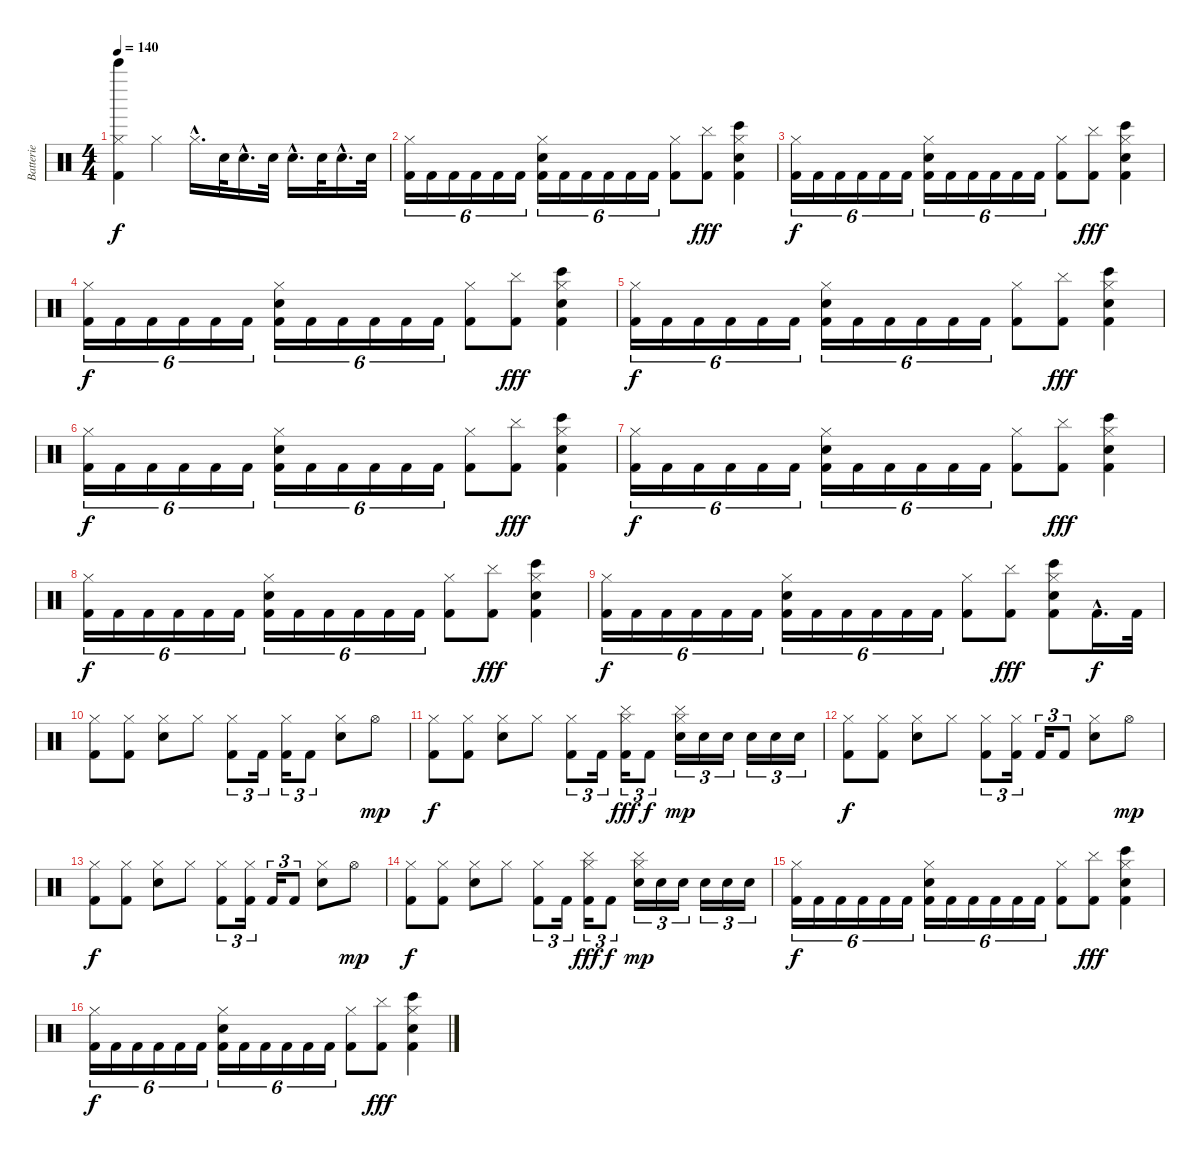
\track ("Batterie" "Batterie") {instrument percussion}
\staff {score}
\articulation defaults
\ts (4 4)
\tempo 140
\clef neutral
\ks c
("Hi-Hat (closed)" "Bell Tree (hit)" "Kick (hit) 2").4{dy f} "Hi-Hat (closed)".4 "Hi-Hat (closed)"{hac}.16{d} "Electric Snare (hit)".32 "Electric Snare (hit)"{hac}.16{d} "Electric Snare (hit)".32 "Electric Snare (hit)"{hac}.16{d} "Electric Snare (hit)".32 "Electric Snare (hit)"{hac}.16{d} "Electric Snare (hit)".32 |
("Hi-Hat (closed)" "Kick (hit) 2").16{tu (6 4)} "Kick (hit) 2".16{tu (6 4)} "Kick (hit) 2".16{tu (6 4)} "Kick (hit) 2".16{tu (6 4)} "Kick (hit) 2".16{tu (6 4)} "Kick (hit) 2".16{tu (6 4)} ("Hi-Hat (closed)" "Electric Snare (hit)" "Kick (hit) 2").16{tu (6 4)} "Kick (hit) 2".16{tu (6 4)} "Kick (hit) 2".16{tu (6 4)} "Kick (hit) 2".16{tu (6 4)} "Kick (hit) 2".16{tu (6 4)} "Kick (hit) 2".16{tu (6 4)} ("Hi-Hat (closed)" "Kick (hit) 2").8 ("Cymbal (hit)" "Kick (hit) 2").8{dy fff} ("Hi-Hat (closed)" "Electric Snare (hit)" "Bongo High (hit)" "Kick (hit) 2").4 |
("Hi-Hat (closed)" "Kick (hit) 2").16{tu (6 4) dy f} "Kick (hit) 2".16{tu (6 4)} "Kick (hit) 2".16{tu (6 4)} "Kick (hit) 2".16{tu (6 4)} "Kick (hit) 2".16{tu (6 4)} "Kick (hit) 2".16{tu (6 4)} ("Hi-Hat (closed)" "Electric Snare (hit)" "Kick (hit) 2").16{tu (6 4)} "Kick (hit) 2".16{tu (6 4)} "Kick (hit) 2".16{tu (6 4)} "Kick (hit) 2".16{tu (6 4)} "Kick (hit) 2".16{tu (6 4)} "Kick (hit) 2".16{tu (6 4)} ("Hi-Hat (closed)" "Kick (hit) 2").8 ("Cymbal (hit)" "Kick (hit) 2").8{dy fff} ("Hi-Hat (closed)" "Electric Snare (hit)" "Bongo High (hit)" "Kick (hit) 2").4 |
("Hi-Hat (closed)" "Kick (hit) 2").16{tu (6 4) dy f} "Kick (hit) 2".16{tu (6 4)} "Kick (hit) 2".16{tu (6 4)} "Kick (hit) 2".16{tu (6 4)} "Kick (hit) 2".16{tu (6 4)} "Kick (hit) 2".16{tu (6 4)} ("Hi-Hat (closed)" "Electric Snare (hit)" "Kick (hit) 2").16{tu (6 4)} "Kick (hit) 2".16{tu (6 4)} "Kick (hit) 2".16{tu (6 4)} "Kick (hit) 2".16{tu (6 4)} "Kick (hit) 2".16{tu (6 4)} "Kick (hit) 2".16{tu (6 4)} ("Hi-Hat (closed)" "Kick (hit) 2").8 ("Cymbal (hit)" "Kick (hit) 2").8{dy fff} ("Hi-Hat (closed)" "Electric Snare (hit)" "Bongo High (hit)" "Kick (hit) 2").4 |
("Hi-Hat (closed)" "Kick (hit) 2").16{tu (6 4) dy f} "Kick (hit) 2".16{tu (6 4)} "Kick (hit) 2".16{tu (6 4)} "Kick (hit) 2".16{tu (6 4)} "Kick (hit) 2".16{tu (6 4)} "Kick (hit) 2".16{tu (6 4)} ("Hi-Hat (closed)" "Electric Snare (hit)" "Kick (hit) 2").16{tu (6 4)} "Kick (hit) 2".16{tu (6 4)} "Kick (hit) 2".16{tu (6 4)} "Kick (hit) 2".16{tu (6 4)} "Kick (hit) 2".16{tu (6 4)} "Kick (hit) 2".16{tu (6 4)} ("Hi-Hat (closed)" "Kick (hit) 2").8 ("Cymbal (hit)" "Kick (hit) 2").8{dy fff} ("Hi-Hat (closed)" "Electric Snare (hit)" "Bongo High (hit)" "Kick (hit) 2").4 |
("Hi-Hat (closed)" "Kick (hit) 2").16{tu (6 4) dy f} "Kick (hit) 2".16{tu (6 4)} "Kick (hit) 2".16{tu (6 4)} "Kick (hit) 2".16{tu (6 4)} "Kick (hit) 2".16{tu (6 4)} "Kick (hit) 2".16{tu (6 4)} ("Hi-Hat (closed)" "Electric Snare (hit)" "Kick (hit) 2").16{tu (6 4)} "Kick (hit) 2".16{tu (6 4)} "Kick (hit) 2".16{tu (6 4)} "Kick (hit) 2".16{tu (6 4)} "Kick (hit) 2".16{tu (6 4)} "Kick (hit) 2".16{tu (6 4)} ("Hi-Hat (closed)" "Kick (hit) 2").8 ("Cymbal (hit)" "Kick (hit) 2").8{dy fff} ("Hi-Hat (closed)" "Electric Snare (hit)" "Bongo High (hit)" "Kick (hit) 2").4 |
("Hi-Hat (closed)" "Kick (hit) 2").16{tu (6 4) dy f} "Kick (hit) 2".16{tu (6 4)} "Kick (hit) 2".16{tu (6 4)} "Kick (hit) 2".16{tu (6 4)} "Kick (hit) 2".16{tu (6 4)} "Kick (hit) 2".16{tu (6 4)} ("Hi-Hat (closed)" "Electric Snare (hit)" "Kick (hit) 2").16{tu (6 4)} "Kick (hit) 2".16{tu (6 4)} "Kick (hit) 2".16{tu (6 4)} "Kick (hit) 2".16{tu (6 4)} "Kick (hit) 2".16{tu (6 4)} "Kick (hit) 2".16{tu (6 4)} ("Hi-Hat (closed)" "Kick (hit) 2").8 ("Cymbal (hit)" "Kick (hit) 2").8{dy fff} ("Hi-Hat (closed)" "Electric Snare (hit)" "Bongo High (hit)" "Kick (hit) 2").4 |
("Hi-Hat (closed)" "Kick (hit) 2").16{tu (6 4) dy f} "Kick (hit) 2".16{tu (6 4)} "Kick (hit) 2".16{tu (6 4)} "Kick (hit) 2".16{tu (6 4)} "Kick (hit) 2".16{tu (6 4)} "Kick (hit) 2".16{tu (6 4)} ("Hi-Hat (closed)" "Electric Snare (hit)" "Kick (hit) 2").16{tu (6 4)} "Kick (hit) 2".16{tu (6 4)} "Kick (hit) 2".16{tu (6 4)} "Kick (hit) 2".16{tu (6 4)} "Kick (hit) 2".16{tu (6 4)} "Kick (hit) 2".16{tu (6 4)} ("Hi-Hat (closed)" "Kick (hit) 2").8 ("Cymbal (hit)" "Kick (hit) 2").8{dy fff} ("Hi-Hat (closed)" "Electric Snare (hit)" "Bongo High (hit)" "Kick (hit) 2").4 |
("Hi-Hat (closed)" "Kick (hit) 2").16{tu (6 4) dy f} "Kick (hit) 2".16{tu (6 4)} "Kick (hit) 2".16{tu (6 4)} "Kick (hit) 2".16{tu (6 4)} "Kick (hit) 2".16{tu (6 4)} "Kick (hit) 2".16{tu (6 4)} ("Hi-Hat (closed)" "Electric Snare (hit)" "Kick (hit) 2").16{tu (6 4)} "Kick (hit) 2".16{tu (6 4)} "Kick (hit) 2".16{tu (6 4)} "Kick (hit) 2".16{tu (6 4)} "Kick (hit) 2".16{tu (6 4)} "Kick (hit) 2".16{tu (6 4)} ("Hi-Hat (closed)" "Kick (hit) 2").8 ("Cymbal (hit)" "Kick (hit) 2").8{dy fff} ("Hi-Hat (closed)" "Electric Snare (hit)" "Bongo High (hit)" "Kick (hit) 2").8 "Kick (hit) 2"{hac}.16{d dy f} "Kick (hit) 2".32 |
("Hi-Hat (closed)" "Kick (hit) 2").8 ("Hi-Hat (closed)" "Kick (hit) 2").8 ("Hi-Hat (closed)" "Electric Snare (hit)").8 "Hi-Hat (closed)".8 ("Hi-Hat (closed)" "Kick (hit) 2").8{tu (3 2)} "Kick (hit) 2".16{tu (3 2)} ("Hi-Hat (closed)" "Kick (hit) 2").16{tu (3 2)} "Kick (hit) 2".8{tu (3 2)} ("Hi-Hat (closed)" "Electric Snare (hit)").8 "Hi-Hat (open)".8{dy mp} |
("Hi-Hat (closed)" "Kick (hit) 2").8{dy f} ("Hi-Hat (closed)" "Kick (hit) 2").8 ("Hi-Hat (closed)" "Electric Snare (hit)").8 "Hi-Hat (closed)".8 ("Hi-Hat (closed)" "Kick (hit) 2").8{tu (3 2)} "Kick (hit) 2".16{tu (3 2)} ("Hi-Hat (closed)" "Cymbal (hit)" "Kick (hit) 2").16{tu (3 2) dy fff} "Kick (hit) 2".8{tu (3 2) dy f} ("Hi-Hat (closed)" "Cymbal (hit)" "Electric Snare (hit)").16{tu (3 2) dy mp} "Electric Snare (hit)".16{tu (3 2)} "Electric Snare (hit)".16{tu (3 2)} "Electric Snare (hit)".16{tu (3 2)} "Electric Snare (hit)".16{tu (3 2)} "Electric Snare (hit)".16{tu (3 2)} |
("Hi-Hat (closed)" "Kick (hit) 2").8{dy f} ("Hi-Hat (closed)" "Kick (hit) 2").8 ("Hi-Hat (closed)" "Electric Snare (hit)").8 "Hi-Hat (closed)".8 ("Hi-Hat (closed)" "Kick (hit) 2").8{tu (3 2)} ("Hi-Hat (closed)" "Kick (hit) 2").16{tu (3 2)} "Kick (hit) 2".16{tu (3 2)} "Kick (hit) 2".8{tu (3 2)} ("Hi-Hat (closed)" "Electric Snare (hit)").8 "Hi-Hat (open)".8{dy mp} |
("Hi-Hat (closed)" "Kick (hit) 2").8{dy f} ("Hi-Hat (closed)" "Kick (hit) 2").8 ("Hi-Hat (closed)" "Electric Snare (hit)").8 "Hi-Hat (closed)".8 ("Hi-Hat (closed)" "Kick (hit) 2").8{tu (3 2)} ("Hi-Hat (closed)" "Kick (hit) 2").16{tu (3 2)} "Kick (hit) 2".16{tu (3 2)} "Kick (hit) 2".8{tu (3 2)} ("Hi-Hat (closed)" "Electric Snare (hit)").8 "Hi-Hat (open)".8{dy mp} |
("Hi-Hat (closed)" "Kick (hit) 2").8{dy f} ("Hi-Hat (closed)" "Kick (hit) 2").8 ("Hi-Hat (closed)" "Electric Snare (hit)").8 "Hi-Hat (closed)".8 ("Hi-Hat (closed)" "Kick (hit) 2").8{tu (3 2)} "Kick (hit) 2".16{tu (3 2)} ("Hi-Hat (closed)" "Cymbal (hit)" "Kick (hit) 2").16{tu (3 2) dy fff} "Kick (hit) 2".8{tu (3 2) dy f} ("Hi-Hat (closed)" "Cymbal (hit)" "Electric Snare (hit)").16{tu (3 2) dy mp} "Electric Snare (hit)".16{tu (3 2)} "Electric Snare (hit)".16{tu (3 2)} "Electric Snare (hit)".16{tu (3 2)} "Electric Snare (hit)".16{tu (3 2)} "Electric Snare (hit)".16{tu (3 2)} |
("Hi-Hat (closed)" "Kick (hit) 2").16{tu (6 4) dy f} "Kick (hit) 2".16{tu (6 4)} "Kick (hit) 2".16{tu (6 4)} "Kick (hit) 2".16{tu (6 4)} "Kick (hit) 2".16{tu (6 4)} "Kick (hit) 2".16{tu (6 4)} ("Hi-Hat (closed)" "Electric Snare (hit)" "Kick (hit) 2").16{tu (6 4)} "Kick (hit) 2".16{tu (6 4)} "Kick (hit) 2".16{tu (6 4)} "Kick (hit) 2".16{tu (6 4)} "Kick (hit) 2".16{tu (6 4)} "Kick (hit) 2".16{tu (6 4)} ("Hi-Hat (closed)" "Kick (hit) 2").8 ("Cymbal (hit)" "Kick (hit) 2").8{dy fff} ("Hi-Hat (closed)" "Electric Snare (hit)" "Bongo High (hit)" "Kick (hit) 2").4 |
("Hi-Hat (closed)" "Kick (hit) 2").16{tu (6 4) dy f} "Kick (hit) 2".16{tu (6 4)} "Kick (hit) 2".16{tu (6 4)} "Kick (hit) 2".16{tu (6 4)} "Kick (hit) 2".16{tu (6 4)} "Kick (hit) 2".16{tu (6 4)} ("Hi-Hat (closed)" "Electric Snare (hit)" "Kick (hit) 2").16{tu (6 4)} "Kick (hit) 2".16{tu (6 4)} "Kick (hit) 2".16{tu (6 4)} "Kick (hit) 2".16{tu (6 4)} "Kick (hit) 2".16{tu (6 4)} "Kick (hit) 2".16{tu (6 4)} ("Hi-Hat (closed)" "Kick (hit) 2").8 ("Cymbal (hit)" "Kick (hit) 2").8{dy fff} ("Hi-Hat (closed)" "Electric Snare (hit)" "Bongo High (hit)" "Kick (hit) 2").4
